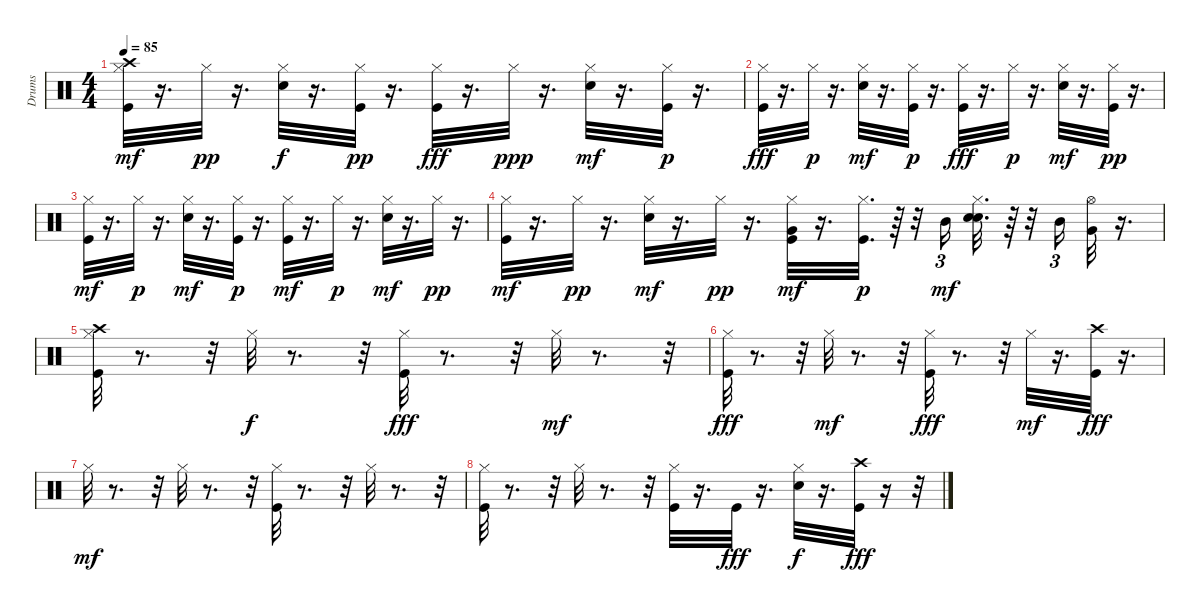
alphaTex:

\track ("Drums" "Drums") {instrument percussion}
\staff {score}
\articulation defaults
\ts (4 4)
\tempo 85
\clef neutral
\ks c
("Kick (hit)" "Crash high (hit)" "Hi-Hat (closed)").32{dy mf} r.16{d} "Hi-Hat (closed)".32{dy pp} r.16{d} ("Electric Snare (hit)" "Hi-Hat (closed)").32{dy f} r.16{d} ("Kick (hit)" "Hi-Hat (closed)").32{dy pp} r.16{d} ("Kick (hit)" "Hi-Hat (closed)").32{dy fff} r.16{d} "Hi-Hat (closed)".32{dy ppp} r.16{d} ("Electric Snare (hit)" "Hi-Hat (closed)").32{dy mf} r.16{d} ("Kick (hit)" "Hi-Hat (closed)").32{dy p} r.16{d} |
("Kick (hit)" "Hi-Hat (closed)").32{dy fff} r.16{d} "Hi-Hat (closed)".32{dy p} r.16{d} ("Electric Snare (hit)" "Hi-Hat (closed)").32{dy mf} r.16{d} ("Kick (hit)" "Hi-Hat (closed)").32{dy p} r.16{d} ("Kick (hit)" "Hi-Hat (closed)").32{dy fff} r.16{d} "Hi-Hat (closed)".32{dy p} r.16{d} ("Electric Snare (hit)" "Hi-Hat (closed)").32{dy mf} r.16{d} ("Kick (hit)" "Hi-Hat (closed)").32{dy pp} r.16{d} |
("Kick (hit)" "Hi-Hat (closed)").32{dy mf} r.16{d} "Hi-Hat (closed)".32{dy p} r.16{d} ("Electric Snare (hit)" "Hi-Hat (closed)").32{dy mf} r.16{d} ("Kick (hit)" "Hi-Hat (closed)").32{dy p} r.16{d} ("Kick (hit)" "Hi-Hat (closed)").32{dy mf} r.16{d} "Hi-Hat (closed)".32{dy p} r.16{d} ("Electric Snare (hit)" "Hi-Hat (closed)").32{dy mf} r.16{d} "Hi-Hat (closed)".32{dy pp} r.16{d} |
("Kick (hit)" "Hi-Hat (closed)").32{dy mf} r.16{d} "Hi-Hat (closed)".32{dy pp} r.16{d} ("Electric Snare (hit)" "Hi-Hat (closed)").32{dy mf} r.16{d} "Hi-Hat (closed)".32{dy pp} r.16{d} ("Kick (hit)" "Hi-Hat (closed)" "Very Low Tom (hit)").32{dy mf} r.16{d} ("Kick (hit)" "Hi-Hat (closed)").32{d dy p} r.64 r.32 "Mid Tom (hit)".16{tu (3 2) dy mf} ("Electric Snare (hit)" "Hi-Hat (closed)" "Snare (hit) 2").32{d} r.64 r.32 "Mid Tom (hit)".16{tu (3 2)} ("Hi-Hat (open)" "Very Low Tom (hit)").32 r.16{d} |
("Kick (hit)" "Crash high (hit)" "Hi-Hat (closed)").32 r.8{d} r.32 "Hi-Hat (closed)".32{dy f} r.8{d} r.32 ("Kick (hit)" "Hi-Hat (closed)").32{dy fff} r.8{d} r.32 "Hi-Hat (closed)".32{dy mf} r.8{d} r.32 |
("Kick (hit)" "Hi-Hat (closed)").32{dy fff} r.8{d} r.32 "Hi-Hat (closed)".32{dy mf} r.8{d} r.32 ("Kick (hit)" "Hi-Hat (closed)").32{dy fff} r.8{d} r.32 "Hi-Hat (closed)".32{dy mf} r.16{d} ("Kick (hit)" "Crash high (hit)").32{dy fff} r.16{d} |
"Hi-Hat (closed)".32{dy mf} r.8{d} r.32 "Hi-Hat (closed)".32 r.8{d} r.32 ("Kick (hit)" "Hi-Hat (closed)").32 r.8{d} r.32 "Hi-Hat (closed)".32 r.8{d} r.32 |
("Kick (hit)" "Hi-Hat (closed)").32 r.8{d} r.32 "Hi-Hat (closed)".32 r.8{d} r.32 ("Kick (hit)" "Hi-Hat (closed)").32 r.16{d} "Kick (hit)".32{dy fff} r.16{d} ("Electric Snare (hit)" "Hi-Hat (closed)").32{dy f} r.16{d} ("Kick (hit)" "Crash high (hit)").32{dy fff} r.16 r.32
